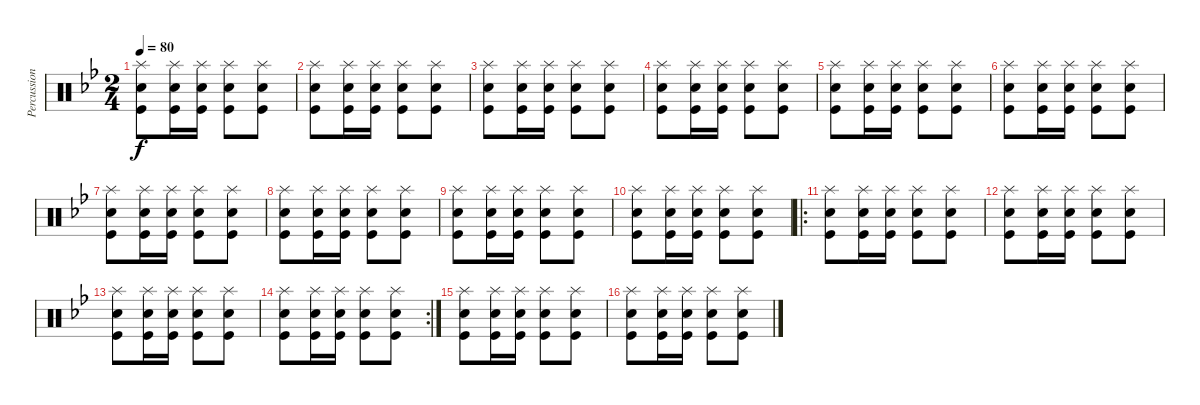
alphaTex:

\track ("Percussion" "Percussion") {instrument percussion}
\staff {score}
\articulation defaults
\ts (2 4)
\tempo 80
\clef neutral
\ks bb
("Splash (hit)" "Kick (hit)" "Snare (hit) 2").8{dy f} ("Splash (hit)" "Kick (hit)" "Snare (hit) 2").16 ("Splash (hit)" "Kick (hit)" "Snare (hit) 2").16 ("Splash (hit)" "Kick (hit)" "Snare (hit) 2").8 ("Splash (hit)" "Kick (hit)" "Snare (hit) 2").8 |
("Splash (hit)" "Kick (hit)" "Snare (hit) 2").8 ("Splash (hit)" "Kick (hit)" "Snare (hit) 2").16 ("Splash (hit)" "Kick (hit)" "Snare (hit) 2").16 ("Splash (hit)" "Kick (hit)" "Snare (hit) 2").8 ("Splash (hit)" "Kick (hit)" "Snare (hit) 2").8 |
("Splash (hit)" "Kick (hit)" "Snare (hit) 2").8 ("Splash (hit)" "Kick (hit)" "Snare (hit) 2").16 ("Splash (hit)" "Kick (hit)" "Snare (hit) 2").16 ("Splash (hit)" "Kick (hit)" "Snare (hit) 2").8 ("Splash (hit)" "Kick (hit)" "Snare (hit) 2").8 |
("Splash (hit)" "Kick (hit)" "Snare (hit) 2").8 ("Splash (hit)" "Kick (hit)" "Snare (hit) 2").16 ("Splash (hit)" "Kick (hit)" "Snare (hit) 2").16 ("Splash (hit)" "Kick (hit)" "Snare (hit) 2").8 ("Splash (hit)" "Kick (hit)" "Snare (hit) 2").8 |
("Splash (hit)" "Kick (hit)" "Snare (hit) 2").8 ("Splash (hit)" "Kick (hit)" "Snare (hit) 2").16 ("Splash (hit)" "Kick (hit)" "Snare (hit) 2").16 ("Splash (hit)" "Kick (hit)" "Snare (hit) 2").8 ("Splash (hit)" "Kick (hit)" "Snare (hit) 2").8 |
("Splash (hit)" "Kick (hit)" "Snare (hit) 2").8 ("Splash (hit)" "Kick (hit)" "Snare (hit) 2").16 ("Splash (hit)" "Kick (hit)" "Snare (hit) 2").16 ("Splash (hit)" "Kick (hit)" "Snare (hit) 2").8 ("Splash (hit)" "Kick (hit)" "Snare (hit) 2").8 |
("Splash (hit)" "Kick (hit)" "Snare (hit) 2").8 ("Splash (hit)" "Kick (hit)" "Snare (hit) 2").16 ("Splash (hit)" "Kick (hit)" "Snare (hit) 2").16 ("Splash (hit)" "Kick (hit)" "Snare (hit) 2").8 ("Splash (hit)" "Kick (hit)" "Snare (hit) 2").8 |
("Splash (hit)" "Kick (hit)" "Snare (hit) 2").8 ("Splash (hit)" "Kick (hit)" "Snare (hit) 2").16 ("Splash (hit)" "Kick (hit)" "Snare (hit) 2").16 ("Splash (hit)" "Kick (hit)" "Snare (hit) 2").8 ("Splash (hit)" "Kick (hit)" "Snare (hit) 2").8 |
("Splash (hit)" "Kick (hit)" "Snare (hit) 2").8 ("Splash (hit)" "Kick (hit)" "Snare (hit) 2").16 ("Splash (hit)" "Kick (hit)" "Snare (hit) 2").16 ("Splash (hit)" "Kick (hit)" "Snare (hit) 2").8 ("Splash (hit)" "Kick (hit)" "Snare (hit) 2").8 |
("Splash (hit)" "Kick (hit)" "Snare (hit) 2").8 ("Splash (hit)" "Kick (hit)" "Snare (hit) 2").16 ("Splash (hit)" "Kick (hit)" "Snare (hit) 2").16 ("Splash (hit)" "Kick (hit)" "Snare (hit) 2").8 ("Splash (hit)" "Kick (hit)" "Snare (hit) 2").8 |
\ro
("Splash (hit)" "Kick (hit)" "Snare (hit) 2").8 ("Splash (hit)" "Kick (hit)" "Snare (hit) 2").16 ("Splash (hit)" "Kick (hit)" "Snare (hit) 2").16 ("Splash (hit)" "Kick (hit)" "Snare (hit) 2").8 ("Splash (hit)" "Kick (hit)" "Snare (hit) 2").8 |
("Splash (hit)" "Kick (hit)" "Snare (hit) 2").8 ("Splash (hit)" "Kick (hit)" "Snare (hit) 2").16 ("Splash (hit)" "Kick (hit)" "Snare (hit) 2").16 ("Splash (hit)" "Kick (hit)" "Snare (hit) 2").8 ("Splash (hit)" "Kick (hit)" "Snare (hit) 2").8 |
("Splash (hit)" "Kick (hit)" "Snare (hit) 2").8 ("Splash (hit)" "Kick (hit)" "Snare (hit) 2").16 ("Splash (hit)" "Kick (hit)" "Snare (hit) 2").16 ("Splash (hit)" "Kick (hit)" "Snare (hit) 2").8 ("Splash (hit)" "Kick (hit)" "Snare (hit) 2").8 |
\rc 2
("Splash (hit)" "Kick (hit)" "Snare (hit) 2").8 ("Splash (hit)" "Kick (hit)" "Snare (hit) 2").16 ("Splash (hit)" "Kick (hit)" "Snare (hit) 2").16 ("Splash (hit)" "Kick (hit)" "Snare (hit) 2").8 ("Splash (hit)" "Kick (hit)" "Snare (hit) 2").8 |
("Splash (hit)" "Kick (hit)" "Snare (hit) 2").8 ("Splash (hit)" "Kick (hit)" "Snare (hit) 2").16 ("Splash (hit)" "Kick (hit)" "Snare (hit) 2").16 ("Splash (hit)" "Kick (hit)" "Snare (hit) 2").8 ("Splash (hit)" "Kick (hit)" "Snare (hit) 2").8 |
("Splash (hit)" "Kick (hit)" "Snare (hit) 2").8 ("Splash (hit)" "Kick (hit)" "Snare (hit) 2").16 ("Splash (hit)" "Kick (hit)" "Snare (hit) 2").16 ("Splash (hit)" "Kick (hit)" "Snare (hit) 2").8 ("Splash (hit)" "Kick (hit)" "Snare (hit) 2").8
